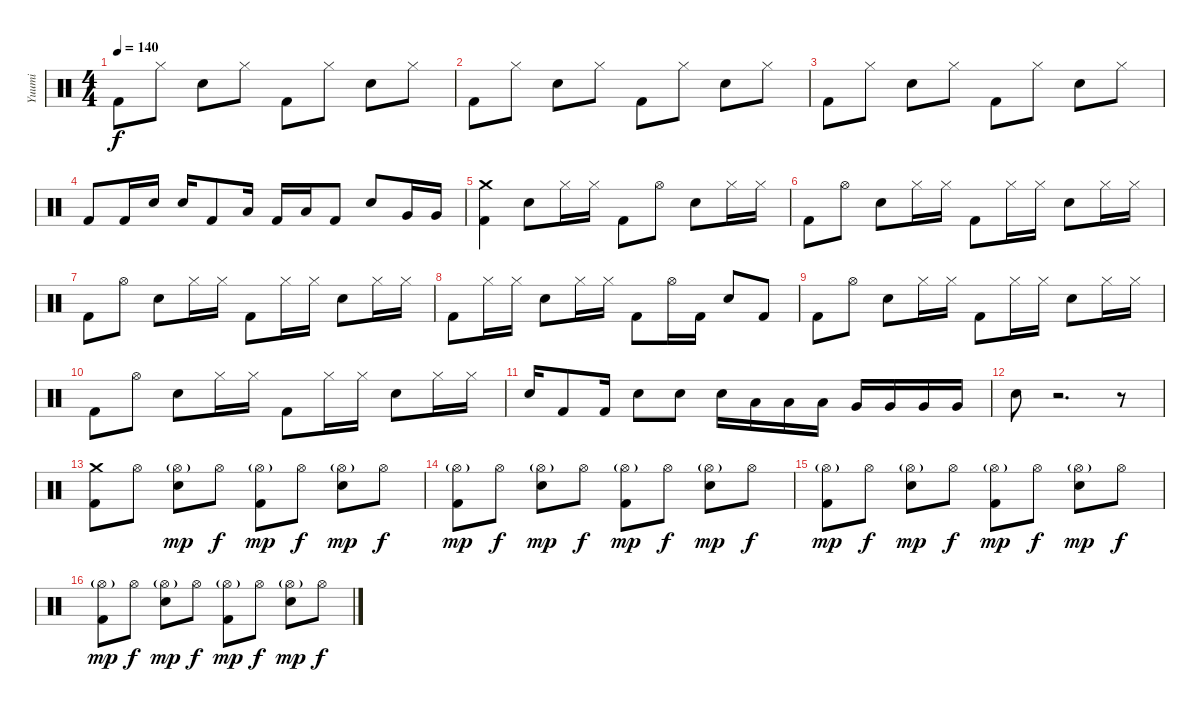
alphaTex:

\track ("Yuumi" "Yuumi") {instrument percussion}
\staff {score}
\articulation defaults
\ts (4 4)
\tempo 140
\clef neutral
\ks c "Kick (hit) 2".8{dy f} "Hi-Hat (closed)".8 "Electric Snare (hit)".8 "Hi-Hat (closed)".8 "Kick (hit) 2".8 "Hi-Hat (closed)".8 "Electric Snare (hit)".8 "Hi-Hat (closed)".8
|
"Kick (hit) 2".8 "Hi-Hat (closed)".8 "Electric Snare (hit)".8 "Hi-Hat (closed)".8 "Kick (hit) 2".8 "Hi-Hat (closed)".8 "Electric Snare (hit)".8 "Hi-Hat (closed)".8 |
"Kick (hit) 2".8 "Hi-Hat (closed)".8 "Electric Snare (hit)".8 "Hi-Hat (closed)".8 "Kick (hit) 2".8 "Hi-Hat (closed)".8 "Electric Snare (hit)".8 "Hi-Hat (closed)".8 |
"Kick (hit) 2".8 "Kick (hit) 2".16 "Electric Snare (hit)".16 "Electric Snare (hit)".16 "Kick (hit) 2".8 "Low Tom (hit)".16 "Kick (hit) 2".16 "Low Tom (hit)".16 "Kick (hit) 2".8 "Electric Snare (hit)".8 "Very Low Tom (hit)".16 "Very Low Tom (hit)".16 |
("Crash medium (hit)" "Kick (hit) 2").4 "Electric Snare (hit)".8 "Hi-Hat (closed)".16 "Hi-Hat (closed)".16 "Kick (hit) 2".8 "Hi-Hat (open)".8 "Electric Snare (hit)".8 "Hi-Hat (closed)".16 "Hi-Hat (closed)".16 |
"Kick (hit) 2".8 "Hi-Hat (open)".8 "Electric Snare (hit)".8 "Hi-Hat (closed)".16 "Hi-Hat (closed)".16 "Kick (hit) 2".8 "Hi-Hat (closed)".16 "Hi-Hat (closed)".16 "Electric Snare (hit)".8 "Hi-Hat (closed)".16 "Hi-Hat (closed)".16 |
"Kick (hit) 2".8 "Hi-Hat (open)".8 "Electric Snare (hit)".8 "Hi-Hat (closed)".16 "Hi-Hat (closed)".16 "Kick (hit) 2".8 "Hi-Hat (closed)".16 "Hi-Hat (closed)".16 "Electric Snare (hit)".8 "Hi-Hat (closed)".16 "Hi-Hat (closed)".16 |
"Kick (hit) 2".8 "Hi-Hat (closed)".16 "Hi-Hat (closed)".16 "Electric Snare (hit)".8 "Hi-Hat (closed)".16 "Hi-Hat (closed)".16 "Kick (hit) 2".8 "Hi-Hat (open)".16 "Kick (hit) 2".16 "Electric Snare (hit)".8 "Kick (hit) 2".8 |
"Kick (hit) 2".8 "Hi-Hat (open)".8 "Electric Snare (hit)".8 "Hi-Hat (closed)".16 "Hi-Hat (closed)".16 "Kick (hit) 2".8 "Hi-Hat (closed)".16 "Hi-Hat (closed)".16 "Electric Snare (hit)".8 "Hi-Hat (closed)".16 "Hi-Hat (closed)".16 |
"Kick (hit) 2".8 "Hi-Hat (open)".8 "Electric Snare (hit)".8 "Hi-Hat (closed)".16 "Hi-Hat (closed)".16 "Kick (hit) 2".8 "Hi-Hat (closed)".16 "Hi-Hat (closed)".16 "Electric Snare (hit)".8 "Hi-Hat (closed)".16 "Hi-Hat (closed)".16 |
"Electric Snare (hit)".16 "Kick (hit) 2".8 "Kick (hit) 2".16 "Electric Snare (hit)".8 "Electric Snare (hit)".8 "Electric Snare (hit)".16 "Low Tom (hit)".16 "Low Tom (hit)".16 "Low Tom (hit)".16 "Very Low Tom (hit)".16 "Very Low Tom (hit)".16 "Very Low Tom (hit)".16 "Very Low Tom (hit)".16 |
"Electric Snare (hit)".8 r.2{d} r.8 |
("Crash medium (hit)" "Kick (hit) 2").8 "Hi-Hat (open)".8 ("Hi-Hat (open)"{g} "Electric Snare (hit)").8{dy mp} "Hi-Hat (open)".8{dy f} ("Hi-Hat (open)"{g} "Kick (hit) 2").8{dy mp} "Hi-Hat (open)".8{dy f} ("Hi-Hat (open)"{g} "Electric Snare (hit)").8{dy mp} "Hi-Hat (open)".8{dy f} |
("Hi-Hat (open)"{g} "Kick (hit) 2").8{dy mp} "Hi-Hat (open)".8{dy f} ("Hi-Hat (open)"{g} "Electric Snare (hit)").8{dy mp} "Hi-Hat (open)".8{dy f} ("Hi-Hat (open)"{g} "Kick (hit) 2").8{dy mp} "Hi-Hat (open)".8{dy f} ("Hi-Hat (open)"{g} "Electric Snare (hit)").8{dy mp} "Hi-Hat (open)".8{dy f} |
("Hi-Hat (open)"{g} "Kick (hit) 2").8{dy mp} "Hi-Hat (open)".8{dy f} ("Hi-Hat (open)"{g} "Electric Snare (hit)").8{dy mp} "Hi-Hat (open)".8{dy f} ("Hi-Hat (open)"{g} "Kick (hit) 2").8{dy mp} "Hi-Hat (open)".8{dy f} ("Hi-Hat (open)"{g} "Electric Snare (hit)").8{dy mp} "Hi-Hat (open)".8{dy f} |
("Hi-Hat (open)"{g} "Kick (hit) 2").8{dy mp} "Hi-Hat (open)".8{dy f} ("Hi-Hat (open)"{g} "Electric Snare (hit)").8{dy mp} "Hi-Hat (open)".8{dy f} ("Hi-Hat (open)"{g} "Kick (hit) 2").8{dy mp} "Hi-Hat (open)".8{dy f} ("Hi-Hat (open)"{g} "Electric Snare (hit)").8{dy mp} "Hi-Hat (open)".8{dy f}
